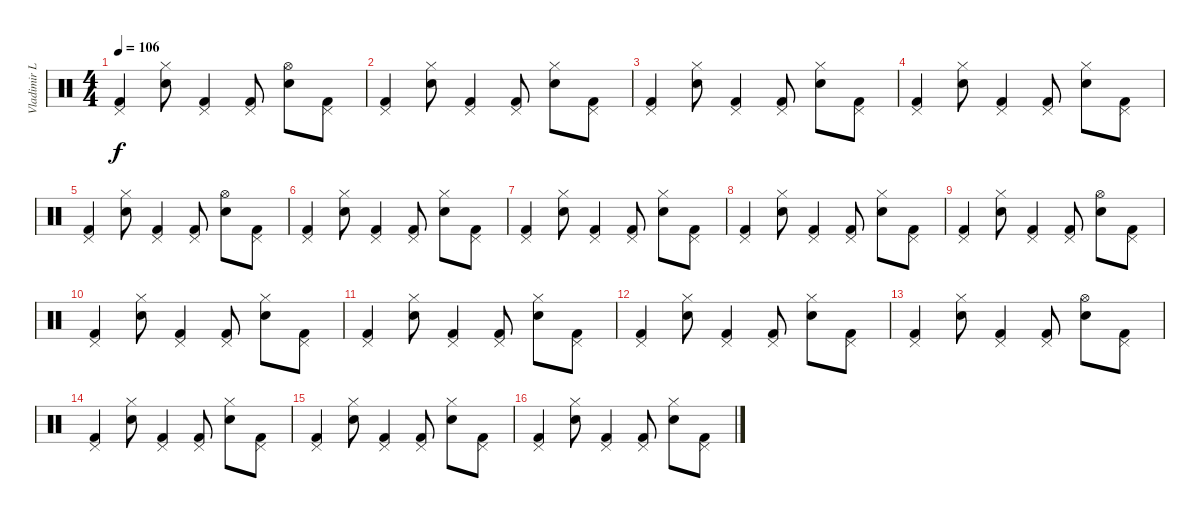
\track ("Vladimir L." "Vladimir L") {solo instrument percussion}
\staff {score}
\articulation defaults
\ts (4 4)
\tempo 106
\clef neutral
\ks c
("Kick (hit) 2" "Pedal Hi-Hat (hit)").4{dy f} ("Electric Snare (hit)" "Hi-Hat (closed)").8 ("Kick (hit) 2" "Pedal Hi-Hat (hit)").4 ("Kick (hit) 2" "Pedal Hi-Hat (hit)").8 ("Electric Snare (hit)" "Hi-Hat (open)").8 ("Kick (hit) 2" "Pedal Hi-Hat (hit)").8 |
("Kick (hit) 2" "Pedal Hi-Hat (hit)").4 ("Electric Snare (hit)" "Hi-Hat (closed)").8 ("Kick (hit) 2" "Pedal Hi-Hat (hit)").4 ("Kick (hit) 2" "Pedal Hi-Hat (hit)").8 ("Electric Snare (hit)" "Hi-Hat (closed)").8 ("Kick (hit) 2" "Pedal Hi-Hat (hit)").8 |
("Kick (hit) 2" "Pedal Hi-Hat (hit)").4 ("Electric Snare (hit)" "Hi-Hat (closed)").8 ("Kick (hit) 2" "Pedal Hi-Hat (hit)").4 ("Kick (hit) 2" "Pedal Hi-Hat (hit)").8 ("Electric Snare (hit)" "Hi-Hat (closed)").8 ("Kick (hit) 2" "Pedal Hi-Hat (hit)").8 |
("Kick (hit) 2" "Pedal Hi-Hat (hit)").4 ("Electric Snare (hit)" "Hi-Hat (closed)").8 ("Kick (hit) 2" "Pedal Hi-Hat (hit)").4 ("Kick (hit) 2" "Pedal Hi-Hat (hit)").8 ("Electric Snare (hit)" "Hi-Hat (closed)").8 ("Kick (hit) 2" "Pedal Hi-Hat (hit)").8 |
("Kick (hit) 2" "Pedal Hi-Hat (hit)").4 ("Electric Snare (hit)" "Hi-Hat (closed)").8 ("Kick (hit) 2" "Pedal Hi-Hat (hit)").4 ("Kick (hit) 2" "Pedal Hi-Hat (hit)").8 ("Electric Snare (hit)" "Hi-Hat (open)").8 ("Kick (hit) 2" "Pedal Hi-Hat (hit)").8 |
("Kick (hit) 2" "Pedal Hi-Hat (hit)").4 ("Electric Snare (hit)" "Hi-Hat (closed)").8 ("Kick (hit) 2" "Pedal Hi-Hat (hit)").4 ("Kick (hit) 2" "Pedal Hi-Hat (hit)").8 ("Electric Snare (hit)" "Hi-Hat (closed)").8 ("Kick (hit) 2" "Pedal Hi-Hat (hit)").8 |
("Kick (hit) 2" "Pedal Hi-Hat (hit)").4 ("Electric Snare (hit)" "Hi-Hat (closed)").8 ("Kick (hit) 2" "Pedal Hi-Hat (hit)").4 ("Kick (hit) 2" "Pedal Hi-Hat (hit)").8 ("Electric Snare (hit)" "Hi-Hat (closed)").8 ("Kick (hit) 2" "Pedal Hi-Hat (hit)").8 |
("Kick (hit) 2" "Pedal Hi-Hat (hit)").4 ("Electric Snare (hit)" "Hi-Hat (closed)").8 ("Kick (hit) 2" "Pedal Hi-Hat (hit)").4 ("Kick (hit) 2" "Pedal Hi-Hat (hit)").8 ("Electric Snare (hit)" "Hi-Hat (closed)").8 ("Kick (hit) 2" "Pedal Hi-Hat (hit)").8 |
("Kick (hit) 2" "Pedal Hi-Hat (hit)").4 ("Electric Snare (hit)" "Hi-Hat (closed)").8 ("Kick (hit) 2" "Pedal Hi-Hat (hit)").4 ("Kick (hit) 2" "Pedal Hi-Hat (hit)").8 ("Electric Snare (hit)" "Hi-Hat (open)").8 ("Kick (hit) 2" "Pedal Hi-Hat (hit)").8 |
("Kick (hit) 2" "Pedal Hi-Hat (hit)").4 ("Electric Snare (hit)" "Hi-Hat (closed)").8 ("Kick (hit) 2" "Pedal Hi-Hat (hit)").4 ("Kick (hit) 2" "Pedal Hi-Hat (hit)").8 ("Electric Snare (hit)" "Hi-Hat (closed)").8 ("Kick (hit) 2" "Pedal Hi-Hat (hit)").8 |
("Kick (hit) 2" "Pedal Hi-Hat (hit)").4 ("Electric Snare (hit)" "Hi-Hat (closed)").8 ("Kick (hit) 2" "Pedal Hi-Hat (hit)").4 ("Kick (hit) 2" "Pedal Hi-Hat (hit)").8 ("Electric Snare (hit)" "Hi-Hat (closed)").8 ("Kick (hit) 2" "Pedal Hi-Hat (hit)").8 |
("Kick (hit) 2" "Pedal Hi-Hat (hit)").4 ("Electric Snare (hit)" "Hi-Hat (closed)").8 ("Kick (hit) 2" "Pedal Hi-Hat (hit)").4 ("Kick (hit) 2" "Pedal Hi-Hat (hit)").8 ("Electric Snare (hit)" "Hi-Hat (closed)").8 ("Kick (hit) 2" "Pedal Hi-Hat (hit)").8 |
("Kick (hit) 2" "Pedal Hi-Hat (hit)").4 ("Electric Snare (hit)" "Hi-Hat (closed)").8 ("Kick (hit) 2" "Pedal Hi-Hat (hit)").4 ("Kick (hit) 2" "Pedal Hi-Hat (hit)").8 ("Electric Snare (hit)" "Hi-Hat (open)").8 ("Kick (hit) 2" "Pedal Hi-Hat (hit)").8 |
("Kick (hit) 2" "Pedal Hi-Hat (hit)").4 ("Electric Snare (hit)" "Hi-Hat (closed)").8 ("Kick (hit) 2" "Pedal Hi-Hat (hit)").4 ("Kick (hit) 2" "Pedal Hi-Hat (hit)").8 ("Electric Snare (hit)" "Hi-Hat (closed)").8 ("Kick (hit) 2" "Pedal Hi-Hat (hit)").8 |
("Kick (hit) 2" "Pedal Hi-Hat (hit)").4 ("Electric Snare (hit)" "Hi-Hat (closed)").8 ("Kick (hit) 2" "Pedal Hi-Hat (hit)").4 ("Kick (hit) 2" "Pedal Hi-Hat (hit)").8 ("Electric Snare (hit)" "Hi-Hat (closed)").8 ("Kick (hit) 2" "Pedal Hi-Hat (hit)").8 |
("Kick (hit) 2" "Pedal Hi-Hat (hit)").4 ("Electric Snare (hit)" "Hi-Hat (closed)").8 ("Kick (hit) 2" "Pedal Hi-Hat (hit)").4 ("Kick (hit) 2" "Pedal Hi-Hat (hit)").8 ("Electric Snare (hit)" "Hi-Hat (closed)").8 ("Kick (hit) 2" "Pedal Hi-Hat (hit)").8
